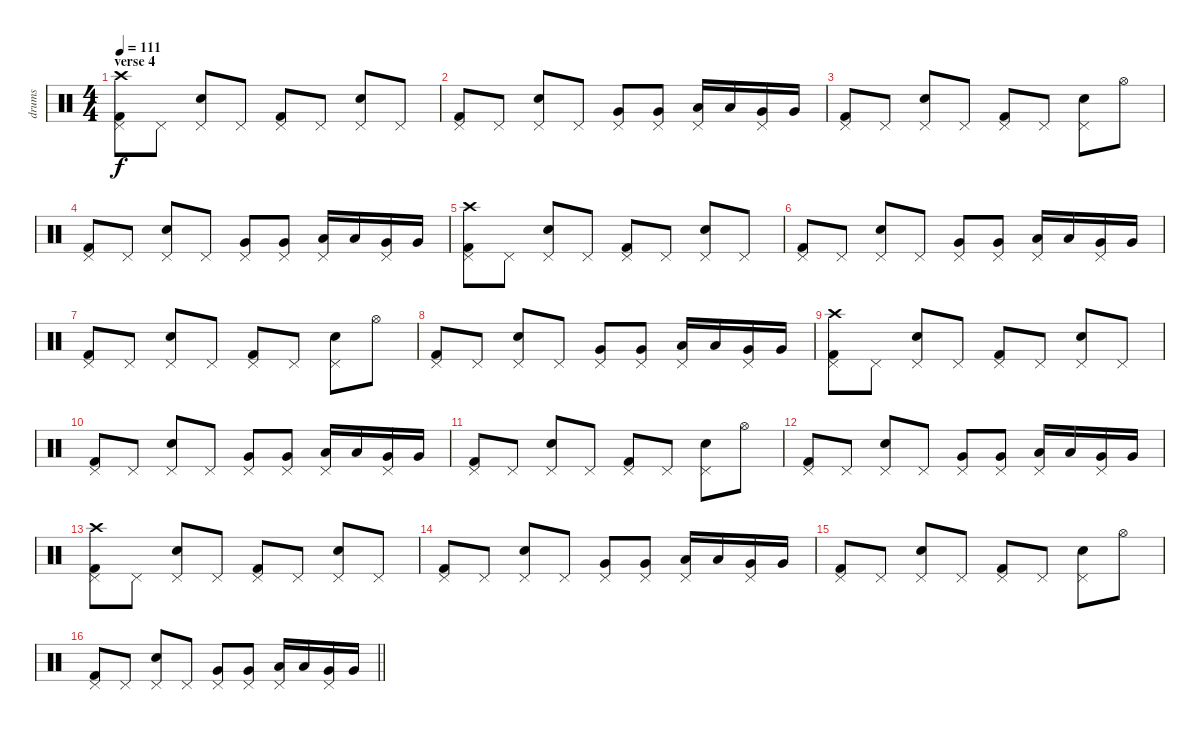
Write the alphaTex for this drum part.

\track ("drums" "drums") {instrument percussion}
\staff {score}
\articulation defaults
\ts (4 4)
\section ("" "verse 4")
\tempo 111
\clef neutral
\ks c
("Kick (hit) 2" "Pedal Hi-Hat (hit)" "Crash high (hit)").8{dy f} "Pedal Hi-Hat (hit)".8 ("Electric Snare (hit)" "Pedal Hi-Hat (hit)").8 "Pedal Hi-Hat (hit)".8 ("Kick (hit) 2" "Pedal Hi-Hat (hit)").8 "Pedal Hi-Hat (hit)".8 ("Electric Snare (hit)" "Pedal Hi-Hat (hit)").8 "Pedal Hi-Hat (hit)".8 |
("Kick (hit) 2" "Pedal Hi-Hat (hit)").8 "Pedal Hi-Hat (hit)".8 ("Electric Snare (hit)" "Pedal Hi-Hat (hit)").8 "Pedal Hi-Hat (hit)".8 ("Very Low Tom (hit)" "Pedal Hi-Hat (hit)").8 ("Very Low Tom (hit)" "Pedal Hi-Hat (hit)").8 ("Low Floor Tom (hit)" "Pedal Hi-Hat (hit)").16 "Low Floor Tom (hit)".16 ("Very Low Tom (hit)" "Pedal Hi-Hat (hit)").16 "Very Low Tom (hit)".16 |
("Kick (hit) 2" "Pedal Hi-Hat (hit)").8 "Pedal Hi-Hat (hit)".8 ("Electric Snare (hit)" "Pedal Hi-Hat (hit)").8 "Pedal Hi-Hat (hit)".8 ("Kick (hit) 2" "Pedal Hi-Hat (hit)").8 "Pedal Hi-Hat (hit)".8 ("Electric Snare (hit)" "Pedal Hi-Hat (hit)").8 "Hi-Hat (open)".8 |
("Kick (hit) 2" "Pedal Hi-Hat (hit)").8 "Pedal Hi-Hat (hit)".8 ("Electric Snare (hit)" "Pedal Hi-Hat (hit)").8 "Pedal Hi-Hat (hit)".8 ("Very Low Tom (hit)" "Pedal Hi-Hat (hit)").8 ("Very Low Tom (hit)" "Pedal Hi-Hat (hit)").8 ("Low Floor Tom (hit)" "Pedal Hi-Hat (hit)").16 "Low Floor Tom (hit)".16 ("Very Low Tom (hit)" "Pedal Hi-Hat (hit)").16 "Very Low Tom (hit)".16 |
("Kick (hit) 2" "Pedal Hi-Hat (hit)" "Crash high (hit)").8 "Pedal Hi-Hat (hit)".8 ("Electric Snare (hit)" "Pedal Hi-Hat (hit)").8 "Pedal Hi-Hat (hit)".8 ("Kick (hit) 2" "Pedal Hi-Hat (hit)").8 "Pedal Hi-Hat (hit)".8 ("Electric Snare (hit)" "Pedal Hi-Hat (hit)").8 "Pedal Hi-Hat (hit)".8 |
("Kick (hit) 2" "Pedal Hi-Hat (hit)").8 "Pedal Hi-Hat (hit)".8 ("Electric Snare (hit)" "Pedal Hi-Hat (hit)").8 "Pedal Hi-Hat (hit)".8 ("Very Low Tom (hit)" "Pedal Hi-Hat (hit)").8 ("Very Low Tom (hit)" "Pedal Hi-Hat (hit)").8 ("Low Floor Tom (hit)" "Pedal Hi-Hat (hit)").16 "Low Floor Tom (hit)".16 ("Very Low Tom (hit)" "Pedal Hi-Hat (hit)").16 "Very Low Tom (hit)".16 |
("Kick (hit) 2" "Pedal Hi-Hat (hit)").8 "Pedal Hi-Hat (hit)".8 ("Electric Snare (hit)" "Pedal Hi-Hat (hit)").8 "Pedal Hi-Hat (hit)".8 ("Kick (hit) 2" "Pedal Hi-Hat (hit)").8 "Pedal Hi-Hat (hit)".8 ("Electric Snare (hit)" "Pedal Hi-Hat (hit)").8 "Hi-Hat (open)".8 |
("Kick (hit) 2" "Pedal Hi-Hat (hit)").8 "Pedal Hi-Hat (hit)".8 ("Electric Snare (hit)" "Pedal Hi-Hat (hit)").8 "Pedal Hi-Hat (hit)".8 ("Very Low Tom (hit)" "Pedal Hi-Hat (hit)").8 ("Very Low Tom (hit)" "Pedal Hi-Hat (hit)").8 ("Low Floor Tom (hit)" "Pedal Hi-Hat (hit)").16 "Low Floor Tom (hit)".16 ("Very Low Tom (hit)" "Pedal Hi-Hat (hit)").16 "Very Low Tom (hit)".16 |
("Kick (hit) 2" "Pedal Hi-Hat (hit)" "Crash high (hit)").8 "Pedal Hi-Hat (hit)".8 ("Electric Snare (hit)" "Pedal Hi-Hat (hit)").8 "Pedal Hi-Hat (hit)".8 ("Kick (hit) 2" "Pedal Hi-Hat (hit)").8 "Pedal Hi-Hat (hit)".8 ("Electric Snare (hit)" "Pedal Hi-Hat (hit)").8 "Pedal Hi-Hat (hit)".8 |
("Kick (hit) 2" "Pedal Hi-Hat (hit)").8 "Pedal Hi-Hat (hit)".8 ("Electric Snare (hit)" "Pedal Hi-Hat (hit)").8 "Pedal Hi-Hat (hit)".8 ("Very Low Tom (hit)" "Pedal Hi-Hat (hit)").8 ("Very Low Tom (hit)" "Pedal Hi-Hat (hit)").8 ("Low Floor Tom (hit)" "Pedal Hi-Hat (hit)").16 "Low Floor Tom (hit)".16 ("Very Low Tom (hit)" "Pedal Hi-Hat (hit)").16 "Very Low Tom (hit)".16 |
("Kick (hit) 2" "Pedal Hi-Hat (hit)").8 "Pedal Hi-Hat (hit)".8 ("Electric Snare (hit)" "Pedal Hi-Hat (hit)").8 "Pedal Hi-Hat (hit)".8 ("Kick (hit) 2" "Pedal Hi-Hat (hit)").8 "Pedal Hi-Hat (hit)".8 ("Electric Snare (hit)" "Pedal Hi-Hat (hit)").8 "Hi-Hat (open)".8 |
("Kick (hit) 2" "Pedal Hi-Hat (hit)").8 "Pedal Hi-Hat (hit)".8 ("Electric Snare (hit)" "Pedal Hi-Hat (hit)").8 "Pedal Hi-Hat (hit)".8 ("Very Low Tom (hit)" "Pedal Hi-Hat (hit)").8 ("Very Low Tom (hit)" "Pedal Hi-Hat (hit)").8 ("Low Floor Tom (hit)" "Pedal Hi-Hat (hit)").16 "Low Floor Tom (hit)".16 ("Very Low Tom (hit)" "Pedal Hi-Hat (hit)").16 "Very Low Tom (hit)".16 |
("Kick (hit) 2" "Pedal Hi-Hat (hit)" "Crash high (hit)").8 "Pedal Hi-Hat (hit)".8 ("Electric Snare (hit)" "Pedal Hi-Hat (hit)").8 "Pedal Hi-Hat (hit)".8 ("Kick (hit) 2" "Pedal Hi-Hat (hit)").8 "Pedal Hi-Hat (hit)".8 ("Electric Snare (hit)" "Pedal Hi-Hat (hit)").8 "Pedal Hi-Hat (hit)".8 |
("Kick (hit) 2" "Pedal Hi-Hat (hit)").8 "Pedal Hi-Hat (hit)".8 ("Electric Snare (hit)" "Pedal Hi-Hat (hit)").8 "Pedal Hi-Hat (hit)".8 ("Very Low Tom (hit)" "Pedal Hi-Hat (hit)").8 ("Very Low Tom (hit)" "Pedal Hi-Hat (hit)").8 ("Low Floor Tom (hit)" "Pedal Hi-Hat (hit)").16 "Low Floor Tom (hit)".16 ("Very Low Tom (hit)" "Pedal Hi-Hat (hit)").16 "Very Low Tom (hit)".16 |
("Kick (hit) 2" "Pedal Hi-Hat (hit)").8 "Pedal Hi-Hat (hit)".8 ("Electric Snare (hit)" "Pedal Hi-Hat (hit)").8 "Pedal Hi-Hat (hit)".8 ("Kick (hit) 2" "Pedal Hi-Hat (hit)").8 "Pedal Hi-Hat (hit)".8 ("Electric Snare (hit)" "Pedal Hi-Hat (hit)").8 "Hi-Hat (open)".8 |
\barLineRight lightlight
("Kick (hit) 2" "Pedal Hi-Hat (hit)").8 "Pedal Hi-Hat (hit)".8 ("Electric Snare (hit)" "Pedal Hi-Hat (hit)").8 "Pedal Hi-Hat (hit)".8 ("Very Low Tom (hit)" "Pedal Hi-Hat (hit)").8 ("Very Low Tom (hit)" "Pedal Hi-Hat (hit)").8 ("Low Floor Tom (hit)" "Pedal Hi-Hat (hit)").16 "Low Floor Tom (hit)".16 ("Very Low Tom (hit)" "Pedal Hi-Hat (hit)").16 "Very Low Tom (hit)".16
